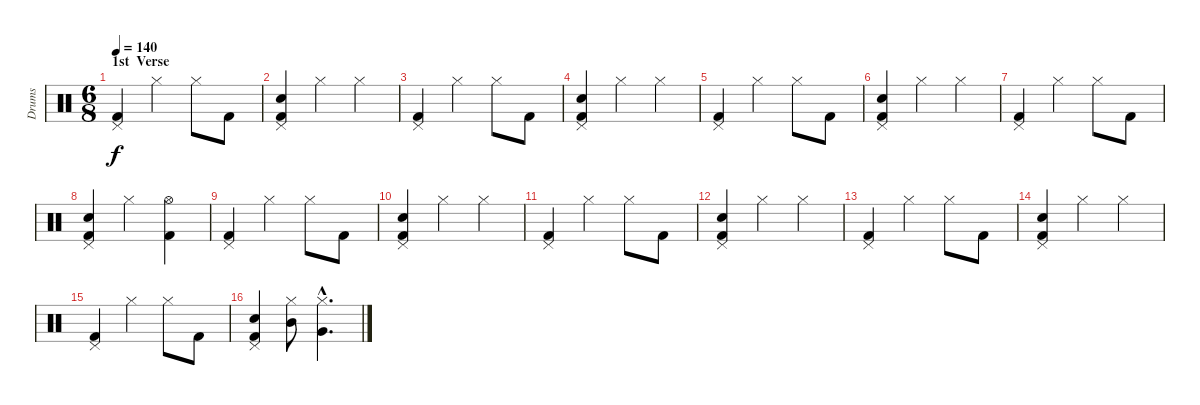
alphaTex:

\track ("Drums" "Drums") {instrument percussion}
\staff {score}
\articulation defaults
\ts (6 8)
\section ("" "1st  Verse")
\tempo 140
\clef neutral
\ks c
("Kick (hit) 2" "Pedal Hi-Hat (hit)").4{dy f} "Hi-Hat (closed)".4 "Hi-Hat (closed)".8 "Kick (hit) 2".8 |
("Electric Snare (hit)" "Kick (hit) 2" "Pedal Hi-Hat (hit)").4 "Hi-Hat (closed)".4 "Hi-Hat (closed)".4 |
("Kick (hit) 2" "Pedal Hi-Hat (hit)").4 "Hi-Hat (closed)".4 "Hi-Hat (closed)".8 "Kick (hit) 2".8 |
("Electric Snare (hit)" "Kick (hit) 2" "Pedal Hi-Hat (hit)").4 "Hi-Hat (closed)".4 "Hi-Hat (closed)".4 |
("Kick (hit) 2" "Pedal Hi-Hat (hit)").4 "Hi-Hat (closed)".4 "Hi-Hat (closed)".8 "Kick (hit) 2".8 |
("Electric Snare (hit)" "Kick (hit) 2" "Pedal Hi-Hat (hit)").4 "Hi-Hat (closed)".4 "Hi-Hat (closed)".4 |
("Kick (hit) 2" "Pedal Hi-Hat (hit)").4 "Hi-Hat (closed)".4 "Hi-Hat (closed)".8 "Kick (hit) 2".8 |
("Electric Snare (hit)" "Kick (hit) 2" "Pedal Hi-Hat (hit)").4 "Hi-Hat (closed)".4 ("Kick (hit) 2" "Hi-Hat (open)").4 |
("Kick (hit) 2" "Pedal Hi-Hat (hit)").4 "Hi-Hat (closed)".4 "Hi-Hat (closed)".8 "Kick (hit) 2".8 |
("Electric Snare (hit)" "Kick (hit) 2" "Pedal Hi-Hat (hit)").4 "Hi-Hat (closed)".4 "Hi-Hat (closed)".4 |
("Kick (hit) 2" "Pedal Hi-Hat (hit)").4 "Hi-Hat (closed)".4 "Hi-Hat (closed)".8 "Kick (hit) 2".8 |
("Electric Snare (hit)" "Kick (hit) 2" "Pedal Hi-Hat (hit)").4 "Hi-Hat (closed)".4 "Hi-Hat (closed)".4 |
("Kick (hit) 2" "Pedal Hi-Hat (hit)").4 "Hi-Hat (closed)".4 "Hi-Hat (closed)".8 "Kick (hit) 2".8 |
("Electric Snare (hit)" "Kick (hit) 2" "Pedal Hi-Hat (hit)").4 "Hi-Hat (closed)".4 "Hi-Hat (closed)".4 |
("Kick (hit) 2" "Pedal Hi-Hat (hit)").4 "Hi-Hat (closed)".4 "Hi-Hat (closed)".8 "Kick (hit) 2".8 |
("Pedal Hi-Hat (hit)" "Electric Snare (hit)" "Kick (hit) 2").4 ("Mid Tom (hit)" "Hi-Hat (closed)").8 ("Very Low Tom (hit)"{hac} "Hi-Hat (closed)"{hac}).4{d}
